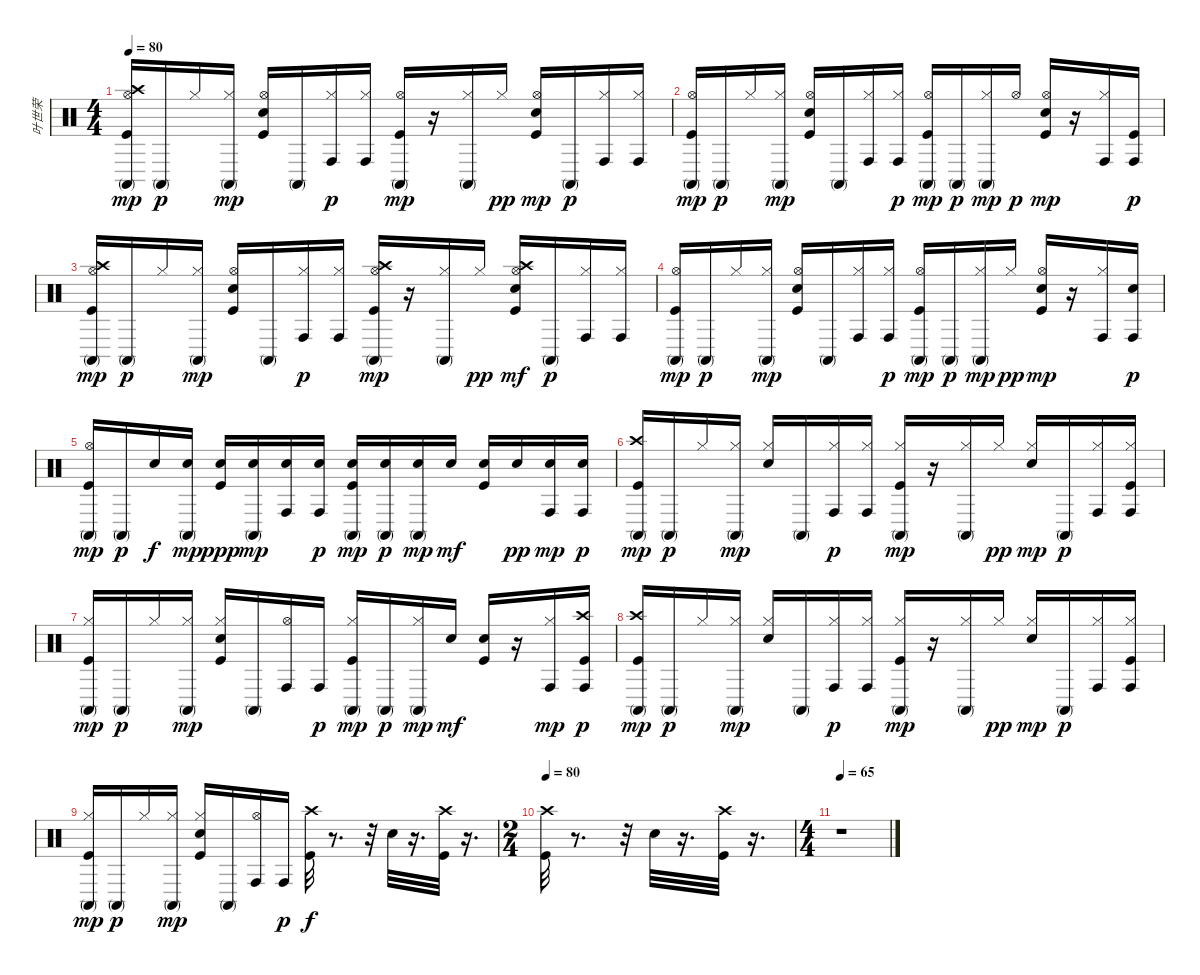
\track ("叶世荣" "叶世荣") {instrument percussion}
\staff {score}
\articulation defaults
\ts (4 4)
\tempo 80
\clef neutral
\ks c
("Kick (hit)" "Hi-Hat (open)" "Crash high (hit)" "Conga high (mute)").16{dy mp} "Conga high (mute)".16{dy p} "Hi-Hat (closed)".16 ("Hi-Hat (closed)" "Conga high (mute)").16{dy mp} ("Kick (hit)" "Snare (hit) 2" "Hi-Hat (open)").16 "Conga high (mute)".16 ("Hi-Hat (closed)" "Conga high (hit)").16{dy p} ("Hi-Hat (closed)" "Conga high (hit)").16 ("Kick (hit)" "Hi-Hat (open)" "Conga high (mute)").16{dy mp} r.16 ("Hi-Hat (closed)" "Conga high (mute)").16 "Hi-Hat (closed)".16{dy pp} ("Kick (hit)" "Snare (hit) 2" "Hi-Hat (open)").16{dy mp} "Conga high (mute)".16{dy p} ("Hi-Hat (closed)" "Conga high (hit)").16 ("Hi-Hat (closed)" "Conga high (hit)").16 |
("Kick (hit)" "Hi-Hat (open)" "Conga high (mute)").16{dy mp} "Conga high (mute)".16{dy p} "Hi-Hat (closed)".16 ("Hi-Hat (closed)" "Conga high (mute)").16{dy mp} ("Kick (hit)" "Snare (hit) 2" "Hi-Hat (open)").16 "Conga high (mute)".16 ("Hi-Hat (closed)" "Conga high (hit)").16 ("Hi-Hat (closed)" "Conga high (hit)").16{dy p} ("Kick (hit)" "Hi-Hat (open)" "Conga high (mute)").16{dy mp} "Conga high (mute)".16{dy p} ("Hi-Hat (closed)" "Conga high (mute)").16{dy mp} "Hi-Hat (open)".16{dy p} ("Kick (hit)" "Snare (hit) 2" "Hi-Hat (open)").16{dy mp} r.16 ("Hi-Hat (closed)" "Conga high (hit)").16 ("Kick (hit)" "Conga high (hit)").16{dy p} |
("Kick (hit)" "Hi-Hat (open)" "Crash high (hit)" "Conga high (mute)").16{dy mp} "Conga high (mute)".16{dy p} "Hi-Hat (closed)".16 ("Hi-Hat (closed)" "Conga high (mute)").16{dy mp} ("Kick (hit)" "Snare (hit) 2" "Hi-Hat (open)").16 "Conga high (mute)".16 ("Hi-Hat (closed)" "Conga high (hit)").16{dy p} ("Hi-Hat (closed)" "Conga high (hit)").16 ("Kick (hit)" "Hi-Hat (open)" "Crash high (hit)" "Conga high (mute)").16{dy mp} r.16 ("Hi-Hat (closed)" "Conga high (mute)").16 "Hi-Hat (closed)".16{dy pp} ("Kick (hit)" "Snare (hit) 2" "Hi-Hat (open)" "Crash high (hit)").16{dy mf} "Conga high (mute)".16{dy p} ("Hi-Hat (closed)" "Conga high (hit)").16 ("Hi-Hat (closed)" "Conga high (hit)").16 |
("Kick (hit)" "Hi-Hat (open)" "Conga high (mute)").16{dy mp} "Conga high (mute)".16{dy p} "Hi-Hat (closed)".16 ("Hi-Hat (closed)" "Conga high (mute)").16{dy mp} ("Kick (hit)" "Snare (hit) 2" "Hi-Hat (open)").16 "Conga high (mute)".16 ("Hi-Hat (closed)" "Conga high (hit)").16 ("Hi-Hat (closed)" "Conga high (hit)").16{dy p} ("Kick (hit)" "Hi-Hat (open)" "Conga high (mute)").16{dy mp} "Conga high (mute)".16{dy p} ("Hi-Hat (closed)" "Conga high (mute)").16{dy mp} "Hi-Hat (closed)".16{dy pp} ("Kick (hit)" "Snare (hit) 2" "Hi-Hat (open)").16{dy mp} r.16 ("Hi-Hat (closed)" "Conga high (hit)").16 ("Snare (hit) 2" "Conga high (hit)").16{dy p} |
("Kick (hit)" "Hi-Hat (open)" "Conga high (mute)").16{dy mp} "Conga high (mute)".16{dy p} "Snare (hit) 2".16{dy f} ("Snare (hit) 2" "Conga high (mute)").16{dy mp} ("Kick (hit)" "Snare (hit) 2").16{dy ppp} ("Snare (hit) 2" "Conga high (mute)").16{dy mp} ("Snare (hit) 2" "Conga high (hit)").16 ("Snare (hit) 2" "Conga high (hit)").16{dy p} ("Kick (hit)" "Snare (hit) 2" "Conga high (mute)").16{dy mp} ("Snare (hit) 2" "Conga high (mute)").16{dy p} ("Snare (hit) 2" "Conga high (mute)").16{dy mp} "Snare (hit) 2".16{dy mf} ("Kick (hit)" "Snare (hit) 2").16 "Snare (hit) 2".16{dy pp} ("Snare (hit) 2" "Conga high (hit)").16{dy mp} ("Snare (hit) 2" "Conga high (hit)").16{dy p} |
("Kick (hit)" "Crash high (hit)" "Conga high (mute)").16{dy mp} "Conga high (mute)".16{dy p} "Hi-Hat (closed)".16 ("Hi-Hat (closed)" "Conga high (mute)").16{dy mp} ("Snare (hit) 2" "Hi-Hat (closed)").16 "Conga high (mute)".16 ("Hi-Hat (closed)" "Conga high (hit)").16{dy p} ("Hi-Hat (closed)" "Conga high (hit)").16 ("Kick (hit)" "Hi-Hat (closed)" "Conga high (mute)").16{dy mp} r.16 ("Hi-Hat (closed)" "Conga high (mute)").16 "Hi-Hat (closed)".16{dy pp} ("Snare (hit) 2" "Hi-Hat (closed)").16{dy mp} "Conga high (mute)".16{dy p} ("Hi-Hat (closed)" "Conga high (hit)").16 ("Kick (hit)" "Hi-Hat (closed)" "Conga high (hit)").16 |
("Kick (hit)" "Hi-Hat (closed)" "Conga high (mute)").16{dy mp} "Conga high (mute)".16{dy p} "Hi-Hat (closed)".16 ("Hi-Hat (closed)" "Conga high (mute)").16{dy mp} ("Kick (hit)" "Snare (hit) 2" "Hi-Hat (closed)").16 "Conga high (mute)".16 ("Hi-Hat (open)" "Conga high (hit)").16 "Conga high (hit)".16{dy p} ("Kick (hit)" "Hi-Hat (closed)" "Conga high (mute)").16{dy mp} "Conga high (mute)".16{dy p} ("Hi-Hat (closed)" "Conga high (mute)").16{dy mp} "Snare (hit) 2".16{dy mf} ("Kick (hit)" "Snare (hit) 2").16 r.16 ("Hi-Hat (closed)" "Conga high (hit)").16{dy mp} ("Kick (hit)" "Crash high (hit)" "Conga high (hit)").16{dy p} |
("Kick (hit)" "Crash high (hit)" "Conga high (mute)").16{dy mp} "Conga high (mute)".16{dy p} "Hi-Hat (closed)".16 ("Hi-Hat (closed)" "Conga high (mute)").16{dy mp} ("Snare (hit) 2" "Hi-Hat (closed)").16 "Conga high (mute)".16 ("Hi-Hat (closed)" "Conga high (hit)").16{dy p} ("Hi-Hat (closed)" "Conga high (hit)").16 ("Kick (hit)" "Hi-Hat (closed)" "Conga high (mute)").16{dy mp} r.16 ("Hi-Hat (closed)" "Conga high (mute)").16 "Hi-Hat (closed)".16{dy pp} ("Snare (hit) 2" "Hi-Hat (closed)").16{dy mp} "Conga high (mute)".16{dy p} ("Hi-Hat (closed)" "Conga high (hit)").16 ("Kick (hit)" "Hi-Hat (closed)" "Conga high (hit)").16 |
("Kick (hit)" "Hi-Hat (closed)" "Conga high (mute)").16{dy mp} "Conga high (mute)".16{dy p} "Hi-Hat (closed)".16 ("Hi-Hat (closed)" "Conga high (mute)").16{dy mp} ("Kick (hit)" "Snare (hit) 2" "Hi-Hat (closed)").16 "Conga high (mute)".16 ("Hi-Hat (open)" "Conga high (hit)").16 "Conga high (hit)".16{dy p} ("Kick (hit)" "Crash high (hit)").32{dy f} r.8{d} r.32 "Snare (hit) 2".32 r.16{d} ("Kick (hit)" "Crash high (hit)").32 r.16{d} |
\ts (2 4)
\tempo 80
("Kick (hit)" "Crash high (hit)").32 r.8{d} r.32 "Snare (hit) 2".32 r.16{d} ("Kick (hit)" "Crash high (hit)").32 r.16{d} |
\ts (4 4)
\tempo 65
r.1
